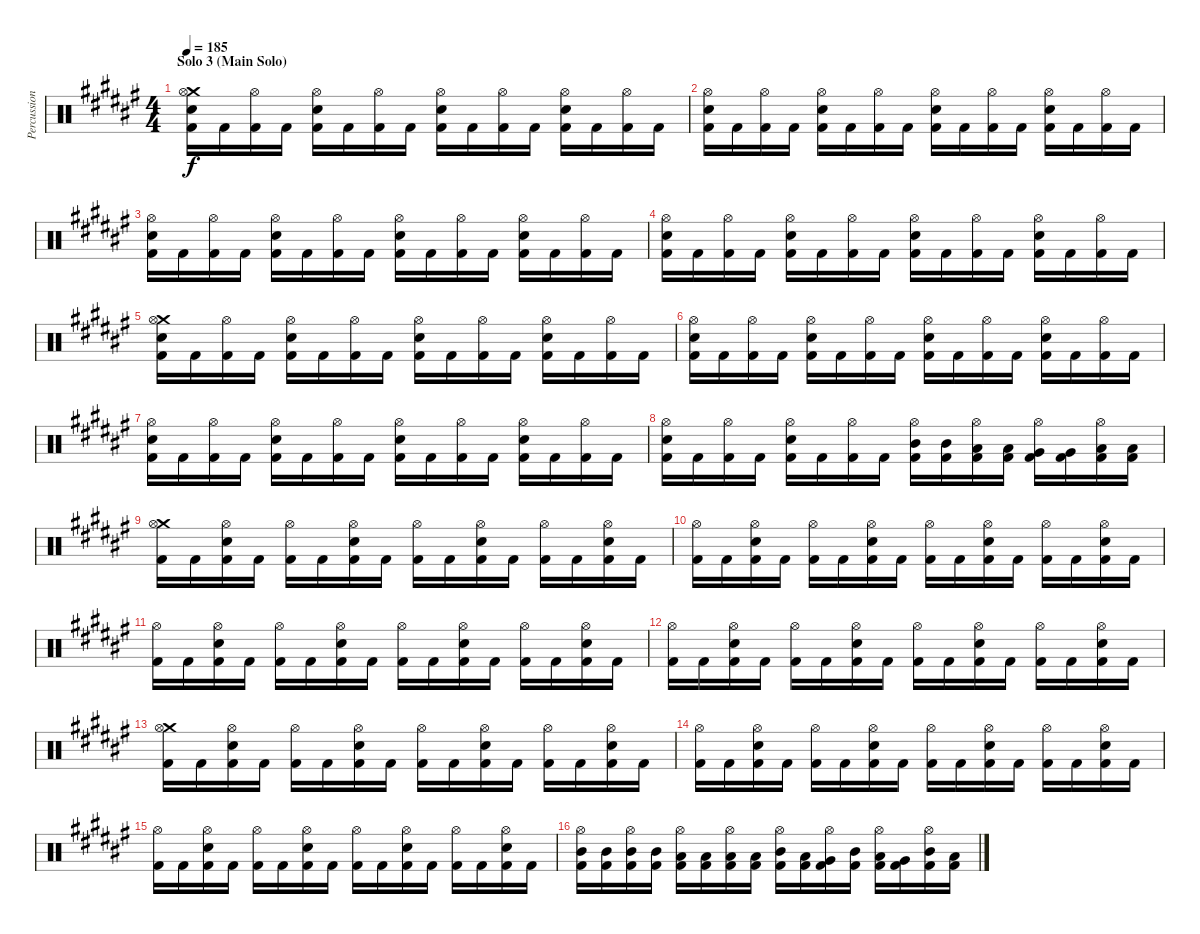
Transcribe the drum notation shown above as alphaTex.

\track ("Percussion" "Percussion") {instrument percussion}
\staff {score}
\articulation defaults
\ts (4 4)
\section ("" "Solo 3 (Main Solo)")
\tempo 185
\clef neutral
\ks d#minor
("Crash medium (hit)" "Hi-Hat (open)" "Electric Snare (hit)" "Kick (hit) 2").16{dy f} "Kick (hit) 2".16 ("Hi-Hat (open)" "Kick (hit) 2").16 "Kick (hit) 2".16 ("Hi-Hat (open)" "Electric Snare (hit)" "Kick (hit) 2").16 "Kick (hit) 2".16 ("Hi-Hat (open)" "Kick (hit) 2").16 "Kick (hit) 2".16 ("Hi-Hat (open)" "Electric Snare (hit)" "Kick (hit) 2").16 "Kick (hit) 2".16 ("Hi-Hat (open)" "Kick (hit) 2").16 "Kick (hit) 2".16 ("Hi-Hat (open)" "Electric Snare (hit)" "Kick (hit) 2").16 "Kick (hit) 2".16 ("Hi-Hat (open)" "Kick (hit) 2").16 "Kick (hit) 2".16 |
("Hi-Hat (open)" "Electric Snare (hit)" "Kick (hit) 2").16 "Kick (hit) 2".16 ("Hi-Hat (open)" "Kick (hit) 2").16 "Kick (hit) 2".16 ("Hi-Hat (open)" "Electric Snare (hit)" "Kick (hit) 2").16 "Kick (hit) 2".16 ("Hi-Hat (open)" "Kick (hit) 2").16 "Kick (hit) 2".16 ("Hi-Hat (open)" "Electric Snare (hit)" "Kick (hit) 2").16 "Kick (hit) 2".16 ("Hi-Hat (open)" "Kick (hit) 2").16 "Kick (hit) 2".16 ("Hi-Hat (open)" "Electric Snare (hit)" "Kick (hit) 2").16 "Kick (hit) 2".16 ("Hi-Hat (open)" "Kick (hit) 2").16 "Kick (hit) 2".16 |
("Hi-Hat (open)" "Electric Snare (hit)" "Kick (hit) 2").16 "Kick (hit) 2".16 ("Hi-Hat (open)" "Kick (hit) 2").16 "Kick (hit) 2".16 ("Hi-Hat (open)" "Electric Snare (hit)" "Kick (hit) 2").16 "Kick (hit) 2".16 ("Hi-Hat (open)" "Kick (hit) 2").16 "Kick (hit) 2".16 ("Hi-Hat (open)" "Electric Snare (hit)" "Kick (hit) 2").16 "Kick (hit) 2".16 ("Hi-Hat (open)" "Kick (hit) 2").16 "Kick (hit) 2".16 ("Hi-Hat (open)" "Electric Snare (hit)" "Kick (hit) 2").16 "Kick (hit) 2".16 ("Hi-Hat (open)" "Kick (hit) 2").16 "Kick (hit) 2".16 |
("Hi-Hat (open)" "Electric Snare (hit)" "Kick (hit) 2").16 "Kick (hit) 2".16 ("Hi-Hat (open)" "Kick (hit) 2").16 "Kick (hit) 2".16 ("Hi-Hat (open)" "Electric Snare (hit)" "Kick (hit) 2").16 "Kick (hit) 2".16 ("Hi-Hat (open)" "Kick (hit) 2").16 "Kick (hit) 2".16 ("Hi-Hat (open)" "Electric Snare (hit)" "Kick (hit) 2").16 "Kick (hit) 2".16 ("Hi-Hat (open)" "Kick (hit) 2").16 "Kick (hit) 2".16 ("Hi-Hat (open)" "Electric Snare (hit)" "Kick (hit) 2").16 "Kick (hit) 2".16 ("Hi-Hat (open)" "Kick (hit) 2").16 "Kick (hit) 2".16 |
("Crash medium (hit)" "Hi-Hat (open)" "Electric Snare (hit)" "Kick (hit) 2").16 "Kick (hit) 2".16 ("Hi-Hat (open)" "Kick (hit) 2").16 "Kick (hit) 2".16 ("Hi-Hat (open)" "Electric Snare (hit)" "Kick (hit) 2").16 "Kick (hit) 2".16 ("Hi-Hat (open)" "Kick (hit) 2").16 "Kick (hit) 2".16 ("Hi-Hat (open)" "Electric Snare (hit)" "Kick (hit) 2").16 "Kick (hit) 2".16 ("Hi-Hat (open)" "Kick (hit) 2").16 "Kick (hit) 2".16 ("Hi-Hat (open)" "Electric Snare (hit)" "Kick (hit) 2").16 "Kick (hit) 2".16 ("Hi-Hat (open)" "Kick (hit) 2").16 "Kick (hit) 2".16 |
("Hi-Hat (open)" "Electric Snare (hit)" "Kick (hit) 2").16 "Kick (hit) 2".16 ("Hi-Hat (open)" "Kick (hit) 2").16 "Kick (hit) 2".16 ("Hi-Hat (open)" "Electric Snare (hit)" "Kick (hit) 2").16 "Kick (hit) 2".16 ("Hi-Hat (open)" "Kick (hit) 2").16 "Kick (hit) 2".16 ("Hi-Hat (open)" "Electric Snare (hit)" "Kick (hit) 2").16 "Kick (hit) 2".16 ("Hi-Hat (open)" "Kick (hit) 2").16 "Kick (hit) 2".16 ("Hi-Hat (open)" "Electric Snare (hit)" "Kick (hit) 2").16 "Kick (hit) 2".16 ("Hi-Hat (open)" "Kick (hit) 2").16 "Kick (hit) 2".16 |
("Hi-Hat (open)" "Electric Snare (hit)" "Kick (hit) 2").16 "Kick (hit) 2".16 ("Hi-Hat (open)" "Kick (hit) 2").16 "Kick (hit) 2".16 ("Hi-Hat (open)" "Electric Snare (hit)" "Kick (hit) 2").16 "Kick (hit) 2".16 ("Hi-Hat (open)" "Kick (hit) 2").16 "Kick (hit) 2".16 ("Hi-Hat (open)" "Electric Snare (hit)" "Kick (hit) 2").16 "Kick (hit) 2".16 ("Hi-Hat (open)" "Kick (hit) 2").16 "Kick (hit) 2".16 ("Hi-Hat (open)" "Electric Snare (hit)" "Kick (hit) 2").16 "Kick (hit) 2".16 ("Hi-Hat (open)" "Kick (hit) 2").16 "Kick (hit) 2".16 |
("Hi-Hat (open)" "Electric Snare (hit)" "Kick (hit) 2").16 "Kick (hit) 2".16 ("Hi-Hat (open)" "Kick (hit) 2").16 "Kick (hit) 2".16 ("Hi-Hat (open)" "Electric Snare (hit)" "Kick (hit) 2").16 "Kick (hit) 2".16 ("Hi-Hat (open)" "Kick (hit) 2").16 "Kick (hit) 2".16 ("Hi-Hat (open)" "Mid Tom (hit)" "Kick (hit) 2").16 ("Mid Tom (hit)" "Kick (hit) 2").16 ("Hi-Hat (open)" "Low Tom (hit)" "Kick (hit) 2").16 ("Low Tom (hit)" "Kick (hit) 2").16 ("Hi-Hat (open)" "Very Low Tom (hit)" "Kick (hit) 2").16 ("Very Low Tom (hit)" "Kick (hit) 2").16 ("Hi-Hat (open)" "Low Floor Tom (hit)" "Kick (hit) 2").16 ("Low Floor Tom (hit)" "Kick (hit) 2").16 |
("Crash medium (hit)" "Hi-Hat (open)" "Kick (hit) 2").16 "Kick (hit) 2".16 ("Hi-Hat (open)" "Electric Snare (hit)" "Kick (hit) 2").16 "Kick (hit) 2".16 ("Hi-Hat (open)" "Kick (hit) 2").16 "Kick (hit) 2".16 ("Hi-Hat (open)" "Electric Snare (hit)" "Kick (hit) 2").16 "Kick (hit) 2".16 ("Hi-Hat (open)" "Kick (hit) 2").16 "Kick (hit) 2".16 ("Hi-Hat (open)" "Electric Snare (hit)" "Kick (hit) 2").16 "Kick (hit) 2".16 ("Hi-Hat (open)" "Kick (hit) 2").16 "Kick (hit) 2".16 ("Hi-Hat (open)" "Electric Snare (hit)" "Kick (hit) 2").16 "Kick (hit) 2".16 |
("Hi-Hat (open)" "Kick (hit) 2").16 "Kick (hit) 2".16 ("Hi-Hat (open)" "Electric Snare (hit)" "Kick (hit) 2").16 "Kick (hit) 2".16 ("Hi-Hat (open)" "Kick (hit) 2").16 "Kick (hit) 2".16 ("Hi-Hat (open)" "Electric Snare (hit)" "Kick (hit) 2").16 "Kick (hit) 2".16 ("Hi-Hat (open)" "Kick (hit) 2").16 "Kick (hit) 2".16 ("Hi-Hat (open)" "Electric Snare (hit)" "Kick (hit) 2").16 "Kick (hit) 2".16 ("Hi-Hat (open)" "Kick (hit) 2").16 "Kick (hit) 2".16 ("Hi-Hat (open)" "Electric Snare (hit)" "Kick (hit) 2").16 "Kick (hit) 2".16 |
("Hi-Hat (open)" "Kick (hit) 2").16 "Kick (hit) 2".16 ("Hi-Hat (open)" "Electric Snare (hit)" "Kick (hit) 2").16 "Kick (hit) 2".16 ("Hi-Hat (open)" "Kick (hit) 2").16 "Kick (hit) 2".16 ("Hi-Hat (open)" "Electric Snare (hit)" "Kick (hit) 2").16 "Kick (hit) 2".16 ("Hi-Hat (open)" "Kick (hit) 2").16 "Kick (hit) 2".16 ("Hi-Hat (open)" "Electric Snare (hit)" "Kick (hit) 2").16 "Kick (hit) 2".16 ("Hi-Hat (open)" "Kick (hit) 2").16 "Kick (hit) 2".16 ("Hi-Hat (open)" "Electric Snare (hit)" "Kick (hit) 2").16 "Kick (hit) 2".16 |
("Hi-Hat (open)" "Kick (hit) 2").16 "Kick (hit) 2".16 ("Hi-Hat (open)" "Electric Snare (hit)" "Kick (hit) 2").16 "Kick (hit) 2".16 ("Hi-Hat (open)" "Kick (hit) 2").16 "Kick (hit) 2".16 ("Hi-Hat (open)" "Electric Snare (hit)" "Kick (hit) 2").16 "Kick (hit) 2".16 ("Hi-Hat (open)" "Kick (hit) 2").16 "Kick (hit) 2".16 ("Hi-Hat (open)" "Electric Snare (hit)" "Kick (hit) 2").16 "Kick (hit) 2".16 ("Hi-Hat (open)" "Kick (hit) 2").16 "Kick (hit) 2".16 ("Hi-Hat (open)" "Electric Snare (hit)" "Kick (hit) 2").16 "Kick (hit) 2".16 |
("Crash medium (hit)" "Hi-Hat (open)" "Kick (hit) 2").16 "Kick (hit) 2".16 ("Hi-Hat (open)" "Electric Snare (hit)" "Kick (hit) 2").16 "Kick (hit) 2".16 ("Hi-Hat (open)" "Kick (hit) 2").16 "Kick (hit) 2".16 ("Hi-Hat (open)" "Electric Snare (hit)" "Kick (hit) 2").16 "Kick (hit) 2".16 ("Hi-Hat (open)" "Kick (hit) 2").16 "Kick (hit) 2".16 ("Hi-Hat (open)" "Electric Snare (hit)" "Kick (hit) 2").16 "Kick (hit) 2".16 ("Hi-Hat (open)" "Kick (hit) 2").16 "Kick (hit) 2".16 ("Hi-Hat (open)" "Electric Snare (hit)" "Kick (hit) 2").16 "Kick (hit) 2".16 |
("Hi-Hat (open)" "Kick (hit) 2").16 "Kick (hit) 2".16 ("Hi-Hat (open)" "Electric Snare (hit)" "Kick (hit) 2").16 "Kick (hit) 2".16 ("Hi-Hat (open)" "Kick (hit) 2").16 "Kick (hit) 2".16 ("Hi-Hat (open)" "Electric Snare (hit)" "Kick (hit) 2").16 "Kick (hit) 2".16 ("Hi-Hat (open)" "Kick (hit) 2").16 "Kick (hit) 2".16 ("Hi-Hat (open)" "Electric Snare (hit)" "Kick (hit) 2").16 "Kick (hit) 2".16 ("Hi-Hat (open)" "Kick (hit) 2").16 "Kick (hit) 2".16 ("Hi-Hat (open)" "Electric Snare (hit)" "Kick (hit) 2").16 "Kick (hit) 2".16 |
("Hi-Hat (open)" "Kick (hit) 2").16 "Kick (hit) 2".16 ("Hi-Hat (open)" "Electric Snare (hit)" "Kick (hit) 2").16 "Kick (hit) 2".16 ("Hi-Hat (open)" "Kick (hit) 2").16 "Kick (hit) 2".16 ("Hi-Hat (open)" "Electric Snare (hit)" "Kick (hit) 2").16 "Kick (hit) 2".16 ("Hi-Hat (open)" "Kick (hit) 2").16 "Kick (hit) 2".16 ("Hi-Hat (open)" "Electric Snare (hit)" "Kick (hit) 2").16 "Kick (hit) 2".16 ("Hi-Hat (open)" "Kick (hit) 2").16 "Kick (hit) 2".16 ("Hi-Hat (open)" "Electric Snare (hit)" "Kick (hit) 2").16 "Kick (hit) 2".16 |
("Hi-Hat (open)" "Mid Tom (hit)" "Kick (hit) 2").16 ("Mid Tom (hit)" "Kick (hit) 2").16 ("Hi-Hat (open)" "Mid Tom (hit)" "Kick (hit) 2").16 ("Mid Tom (hit)" "Kick (hit) 2").16 ("Hi-Hat (open)" "Low Tom (hit)" "Kick (hit) 2").16 ("Low Tom (hit)" "Kick (hit) 2").16 ("Hi-Hat (open)" "Low Tom (hit)" "Kick (hit) 2").16 ("Low Tom (hit)" "Kick (hit) 2").16 ("Hi-Hat (open)" "Mid Tom (hit)" "Kick (hit) 2").16 ("Low Tom (hit)" "Kick (hit) 2").16 ("Hi-Hat (open)" "Very Low Tom (hit)" "Kick (hit) 2").16 ("Mid Tom (hit)" "Kick (hit) 2").16 ("Hi-Hat (open)" "Low Tom (hit)" "Kick (hit) 2").16 ("Very Low Tom (hit)" "Kick (hit) 2").16 ("Hi-Hat (open)" "Mid Tom (hit)" "Kick (hit) 2").16 ("Low Tom (hit)" "Kick (hit) 2").16
